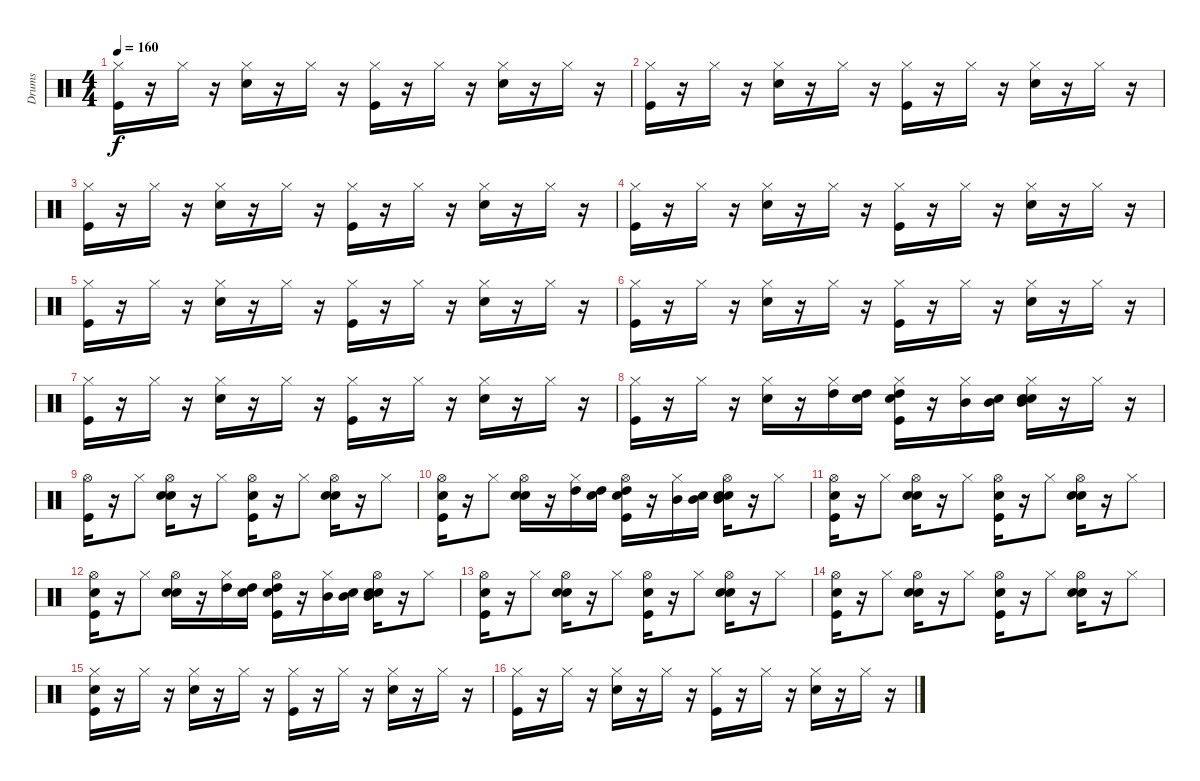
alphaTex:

\track ("Drums               " "Drums     ") {instrument percussion}
\staff {score}
\articulation defaults
\ts (4 4)
\tempo 160
\clef neutral
\ks c
("Kick (hit)" "Hi-Hat (closed)").16{dy f} r.16 "Hi-Hat (closed)".16 r.16 ("Snare (hit) 2" "Hi-Hat (closed)").16 r.16 "Hi-Hat (closed)".16 r.16 ("Kick (hit)" "Hi-Hat (closed)").16 r.16 "Hi-Hat (closed)".16 r.16 ("Snare (hit) 2" "Hi-Hat (closed)").16 r.16 "Hi-Hat (closed)".16 r.16 |
("Kick (hit)" "Hi-Hat (closed)").16 r.16 "Hi-Hat (closed)".16 r.16 ("Snare (hit) 2" "Hi-Hat (closed)").16 r.16 "Hi-Hat (closed)".16 r.16 ("Kick (hit)" "Hi-Hat (closed)").16 r.16 "Hi-Hat (closed)".16 r.16 ("Snare (hit) 2" "Hi-Hat (closed)").16 r.16 "Hi-Hat (closed)".16 r.16 |
("Kick (hit)" "Hi-Hat (closed)").16 r.16 "Hi-Hat (closed)".16 r.16 ("Snare (hit) 2" "Hi-Hat (closed)").16 r.16 "Hi-Hat (closed)".16 r.16 ("Kick (hit)" "Hi-Hat (closed)").16 r.16 "Hi-Hat (closed)".16 r.16 ("Snare (hit) 2" "Hi-Hat (closed)").16 r.16 "Hi-Hat (closed)".16 r.16 |
("Kick (hit)" "Hi-Hat (closed)").16 r.16 "Hi-Hat (closed)".16 r.16 ("Snare (hit) 2" "Hi-Hat (closed)").16 r.16 "Hi-Hat (closed)".16 r.16 ("Kick (hit)" "Hi-Hat (closed)").16 r.16 "Hi-Hat (closed)".16 r.16 ("Snare (hit) 2" "Hi-Hat (closed)").16 r.16 "Hi-Hat (closed)".16 r.16 |
("Kick (hit)" "Hi-Hat (closed)").16 r.16 "Hi-Hat (closed)".16 r.16 ("Snare (hit) 2" "Hi-Hat (closed)").16 r.16 "Hi-Hat (closed)".16 r.16 ("Kick (hit)" "Hi-Hat (closed)").16 r.16 "Hi-Hat (closed)".16 r.16 ("Snare (hit) 2" "Hi-Hat (closed)").16 r.16 "Hi-Hat (closed)".16 r.16 |
("Kick (hit)" "Hi-Hat (closed)").16 r.16 "Hi-Hat (closed)".16 r.16 ("Snare (hit) 2" "Hi-Hat (closed)").16 r.16 "Hi-Hat (closed)".16 r.16 ("Kick (hit)" "Hi-Hat (closed)").16 r.16 "Hi-Hat (closed)".16 r.16 ("Snare (hit) 2" "Hi-Hat (closed)").16 r.16 "Hi-Hat (closed)".16 r.16 |
("Kick (hit)" "Hi-Hat (closed)").16 r.16 "Hi-Hat (closed)".16 r.16 ("Snare (hit) 2" "Hi-Hat (closed)").16 r.16 "Hi-Hat (closed)".16 r.16 ("Kick (hit)" "Hi-Hat (closed)").16 r.16 "Hi-Hat (closed)".16 r.16 ("Snare (hit) 2" "Hi-Hat (closed)").16 r.16 "Hi-Hat (closed)".16 r.16 |
("Kick (hit)" "Hi-Hat (closed)").16 r.16 "Hi-Hat (closed)".16 r.16 ("Snare (hit) 2" "Hi-Hat (closed)").16 r.16 ("Hi-Hat (closed)" "High Tom (hit)").16 ("Snare (hit)" "High Tom (hit)").16 ("Snare (hit)" "Kick (hit)" "Hi-Hat (closed)" "High Tom (hit)").16 r.16 ("Hi-Hat (closed)" "Mid Tom (hit)").16 ("Snare (hit)" "Mid Tom (hit)").16 ("Snare (hit)" "Snare (hit) 2" "Hi-Hat (closed)" "Mid Tom (hit)").16 r.16 "Hi-Hat (closed)".16 r.16 |
("Kick (hit)" "Hi-Hat (open)").16 r.16 "Hi-Hat (closed)".8 ("Snare (hit)" "Snare (hit) 2" "Hi-Hat (open)").16 r.16 "Hi-Hat (closed)".8 ("Snare (hit)" "Kick (hit)" "Hi-Hat (open)").16 r.16 "Hi-Hat (closed)".8 ("Snare (hit)" "Snare (hit) 2" "Hi-Hat (open)").16 r.16 "Hi-Hat (closed)".8 |
("Snare (hit)" "Kick (hit)" "Hi-Hat (open)").16 r.16 "Hi-Hat (closed)".8 ("Snare (hit)" "Snare (hit) 2" "Hi-Hat (open)").16 r.16 ("High Tom (hit)" "Hi-Hat (closed)").16 ("Snare (hit)" "High Tom (hit)").16 ("Snare (hit)" "Kick (hit)" "High Tom (hit)" "Hi-Hat (open)").16 r.16 ("Mid Tom (hit)" "Hi-Hat (closed)").16 ("Snare (hit)" "Mid Tom (hit)").16 ("Snare (hit)" "Snare (hit) 2" "Mid Tom (hit)" "Hi-Hat (open)").16 r.16 "Hi-Hat (closed)".8 |
("Snare (hit)" "Kick (hit)" "Hi-Hat (open)").16 r.16 "Hi-Hat (closed)".8 ("Snare (hit)" "Snare (hit) 2" "Hi-Hat (open)").16 r.16 "Hi-Hat (closed)".8 ("Snare (hit)" "Kick (hit)" "Hi-Hat (open)").16 r.16 "Hi-Hat (closed)".8 ("Snare (hit)" "Snare (hit) 2" "Hi-Hat (open)").16 r.16 "Hi-Hat (closed)".8 |
("Snare (hit)" "Kick (hit)" "Hi-Hat (open)").16 r.16 "Hi-Hat (closed)".8 ("Snare (hit)" "Snare (hit) 2" "Hi-Hat (open)").16 r.16 ("Hi-Hat (closed)" "High Tom (hit)").16 ("Snare (hit)" "High Tom (hit)").16 ("Snare (hit)" "Kick (hit)" "High Tom (hit)" "Hi-Hat (open)").16 r.16 ("Hi-Hat (closed)" "Mid Tom (hit)").16 ("Snare (hit)" "Mid Tom (hit)").16 ("Snare (hit)" "Snare (hit) 2" "Mid Tom (hit)" "Hi-Hat (open)").16 r.16 "Hi-Hat (closed)".8 |
("Snare (hit)" "Kick (hit)" "Hi-Hat (open)").16 r.16 "Hi-Hat (closed)".8 ("Snare (hit)" "Snare (hit) 2" "Hi-Hat (open)").16 r.16 "Hi-Hat (closed)".8 ("Snare (hit)" "Kick (hit)" "Hi-Hat (open)").16 r.16 "Hi-Hat (closed)".8 ("Snare (hit)" "Snare (hit) 2" "Hi-Hat (open)").16 r.16 "Hi-Hat (closed)".8 |
("Snare (hit)" "Kick (hit)" "Hi-Hat (open)").16 r.16 "Hi-Hat (closed)".8 ("Snare (hit)" "Snare (hit) 2" "Hi-Hat (open)").16 r.16 "Hi-Hat (closed)".8 ("Snare (hit)" "Kick (hit)" "Hi-Hat (open)").16 r.16 "Hi-Hat (closed)".8 ("Snare (hit)" "Snare (hit) 2" "Hi-Hat (open)").16 r.16 "Hi-Hat (closed)".8 |
("Snare (hit)" "Kick (hit)" "Hi-Hat (closed)").16 r.16 "Hi-Hat (closed)".16 r.16 ("Snare (hit) 2" "Hi-Hat (closed)").16 r.16 "Hi-Hat (closed)".16 r.16 ("Kick (hit)" "Hi-Hat (closed)").16 r.16 "Hi-Hat (closed)".16 r.16 ("Snare (hit) 2" "Hi-Hat (closed)").16 r.16 "Hi-Hat (closed)".16 r.16 |
("Kick (hit)" "Hi-Hat (closed)").16 r.16 "Hi-Hat (closed)".16 r.16 ("Snare (hit) 2" "Hi-Hat (closed)").16 r.16 "Hi-Hat (closed)".16 r.16 ("Kick (hit)" "Hi-Hat (closed)").16 r.16 "Hi-Hat (closed)".16 r.16 ("Snare (hit) 2" "Hi-Hat (closed)").16 r.16 "Hi-Hat (closed)".16 r.16
